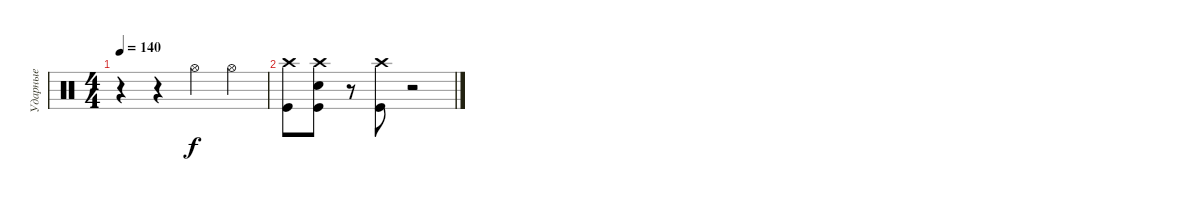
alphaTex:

\track ("Ударные" "Ударные") {instrument percussion}
\staff {score}
\articulation defaults
\ts (4 4)
\tempo 140
\clef neutral
\ks c
r.4{dy f} r.4 "Hi-Hat (open)".4 "Hi-Hat (open)".4 |
("Crash high (hit)" "Kick (hit)").8 ("Crash high (hit)" "Kick (hit)" "Snare (hit) 2").8 r.8 ("Crash high (hit)" "Kick (hit)").8 r.2
